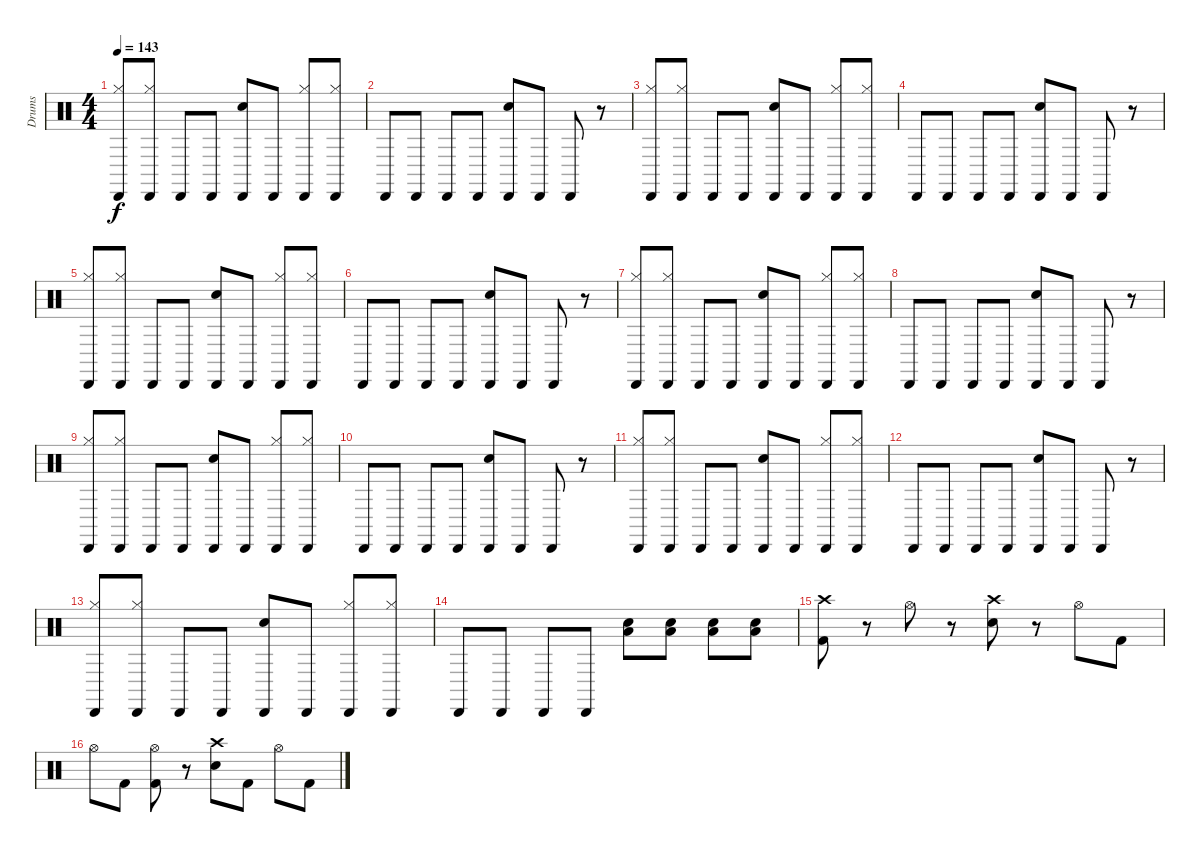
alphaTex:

\track ("Drums" "Drums") {instrument percussion}
\staff {score}
\articulation defaults
\ts (4 4)
\tempo 143
\clef neutral
\ks c
("Cabasa (hit)" "Hi-Hat (closed)").8{dy f} ("Cabasa (hit)" "Hi-Hat (closed)").8 "Cabasa (hit)".8 "Cabasa (hit)".8 ("Cabasa (hit)" "Electric Snare (hit)").8 "Cabasa (hit)".8 ("Cabasa (hit)" "Hi-Hat (closed)").8 ("Cabasa (hit)" "Hi-Hat (closed)").8 |
"Cabasa (hit)".8 "Cabasa (hit)".8 "Cabasa (hit)".8 "Cabasa (hit)".8 ("Cabasa (hit)" "Electric Snare (hit)").8 "Cabasa (hit)".8 "Cabasa (hit)".8 r.8 |
("Cabasa (hit)" "Hi-Hat (closed)").8 ("Cabasa (hit)" "Hi-Hat (closed)").8 "Cabasa (hit)".8 "Cabasa (hit)".8 ("Cabasa (hit)" "Electric Snare (hit)").8 "Cabasa (hit)".8 ("Cabasa (hit)" "Hi-Hat (closed)").8 ("Cabasa (hit)" "Hi-Hat (closed)").8 |
"Cabasa (hit)".8 "Cabasa (hit)".8 "Cabasa (hit)".8 "Cabasa (hit)".8 ("Cabasa (hit)" "Electric Snare (hit)").8 "Cabasa (hit)".8 "Cabasa (hit)".8 r.8 |
("Cabasa (hit)" "Hi-Hat (closed)").8 ("Cabasa (hit)" "Hi-Hat (closed)").8 "Cabasa (hit)".8 "Cabasa (hit)".8 ("Cabasa (hit)" "Electric Snare (hit)").8 "Cabasa (hit)".8 ("Cabasa (hit)" "Hi-Hat (closed)").8 ("Cabasa (hit)" "Hi-Hat (closed)").8 |
"Cabasa (hit)".8 "Cabasa (hit)".8 "Cabasa (hit)".8 "Cabasa (hit)".8 ("Cabasa (hit)" "Electric Snare (hit)").8 "Cabasa (hit)".8 "Cabasa (hit)".8 r.8 |
("Cabasa (hit)" "Hi-Hat (closed)").8 ("Cabasa (hit)" "Hi-Hat (closed)").8 "Cabasa (hit)".8 "Cabasa (hit)".8 ("Cabasa (hit)" "Electric Snare (hit)").8 "Cabasa (hit)".8 ("Cabasa (hit)" "Hi-Hat (closed)").8 ("Cabasa (hit)" "Hi-Hat (closed)").8 |
"Cabasa (hit)".8 "Cabasa (hit)".8 "Cabasa (hit)".8 "Cabasa (hit)".8 ("Cabasa (hit)" "Electric Snare (hit)").8 "Cabasa (hit)".8 "Cabasa (hit)".8 r.8 |
("Cabasa (hit)" "Hi-Hat (closed)").8 ("Cabasa (hit)" "Hi-Hat (closed)").8 "Cabasa (hit)".8 "Cabasa (hit)".8 ("Cabasa (hit)" "Electric Snare (hit)").8 "Cabasa (hit)".8 ("Cabasa (hit)" "Hi-Hat (closed)").8 ("Cabasa (hit)" "Hi-Hat (closed)").8 |
"Cabasa (hit)".8 "Cabasa (hit)".8 "Cabasa (hit)".8 "Cabasa (hit)".8 ("Cabasa (hit)" "Electric Snare (hit)").8 "Cabasa (hit)".8 "Cabasa (hit)".8 r.8 |
("Cabasa (hit)" "Hi-Hat (closed)").8 ("Cabasa (hit)" "Hi-Hat (closed)").8 "Cabasa (hit)".8 "Cabasa (hit)".8 ("Cabasa (hit)" "Electric Snare (hit)").8 "Cabasa (hit)".8 ("Cabasa (hit)" "Hi-Hat (closed)").8 ("Cabasa (hit)" "Hi-Hat (closed)").8 |
"Cabasa (hit)".8 "Cabasa (hit)".8 "Cabasa (hit)".8 "Cabasa (hit)".8 ("Cabasa (hit)" "Electric Snare (hit)").8 "Cabasa (hit)".8 "Cabasa (hit)".8 r.8 |
("Cabasa (hit)" "Hi-Hat (closed)").8 ("Cabasa (hit)" "Hi-Hat (closed)").8 "Cabasa (hit)".8 "Cabasa (hit)".8 ("Cabasa (hit)" "Electric Snare (hit)").8 "Cabasa (hit)".8 ("Cabasa (hit)" "Hi-Hat (closed)").8 ("Cabasa (hit)" "Hi-Hat (closed)").8 |
"Cabasa (hit)".8 "Cabasa (hit)".8 "Cabasa (hit)".8 "Cabasa (hit)".8 ("Electric Snare (hit)" "Low Floor Tom (hit)").8 ("Electric Snare (hit)" "Low Floor Tom (hit)").8 ("Electric Snare (hit)" "Low Floor Tom (hit)").8 ("Electric Snare (hit)" "Low Floor Tom (hit)").8 |
("Crash high (hit)" "Kick (hit) 2").8 r.8 "Hi-Hat (open)".8 r.8 ("Crash high (hit)" "Electric Snare (hit)").8 r.8 "Hi-Hat (open)".8 "Kick (hit) 2".8 |
"Hi-Hat (open)".8 "Kick (hit) 2".8 ("Kick (hit) 2" "Hi-Hat (open)").8 r.8 ("Crash high (hit)" "Electric Snare (hit)").8 "Kick (hit) 2".8 "Hi-Hat (open)".8 "Kick (hit) 2".8
